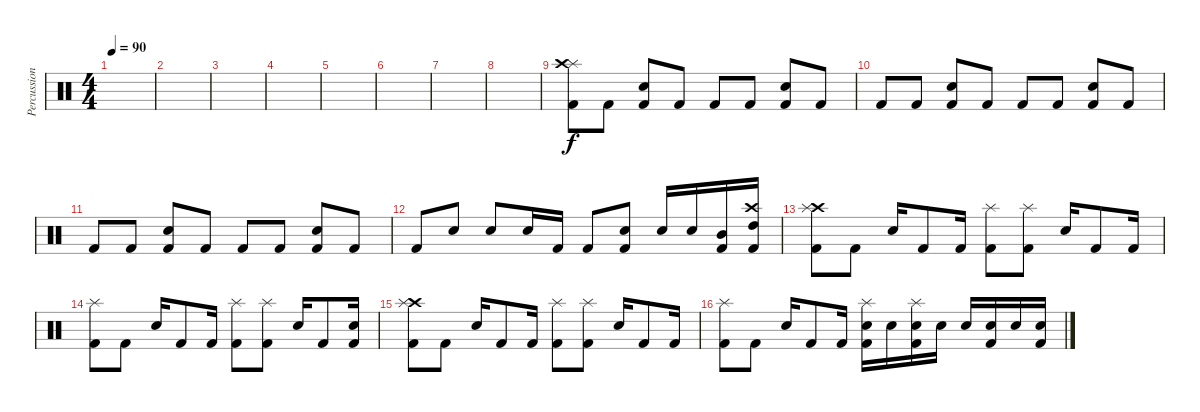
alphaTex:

\track ("Percussion" "Percussion") {instrument percussion}
\staff {score}
\articulation defaults
\ts (4 4)
\tempo 90
\clef neutral
\ks c
|
|
|
|
|
|
|
|
("Splash (hit)" "Kick (hit) 2" "Crash high (hit)").8 "Kick (hit) 2".8 ("Electric Snare (hit)" "Kick (hit) 2").8 "Kick (hit) 2".8 "Kick (hit) 2".8 "Kick (hit) 2".8 ("Electric Snare (hit)" "Kick (hit) 2").8 "Kick (hit) 2".8 |
"Kick (hit) 2".8 "Kick (hit) 2".8 ("Electric Snare (hit)" "Kick (hit) 2").8 "Kick (hit) 2".8 "Kick (hit) 2".8 "Kick (hit) 2".8 ("Electric Snare (hit)" "Kick (hit) 2").8 "Kick (hit) 2".8 |
"Kick (hit) 2".8 "Kick (hit) 2".8 ("Electric Snare (hit)" "Kick (hit) 2").8 "Kick (hit) 2".8 "Kick (hit) 2".8 "Kick (hit) 2".8 ("Electric Snare (hit)" "Kick (hit) 2").8 "Kick (hit) 2".8 |
"Kick (hit) 2".8 "Electric Snare (hit)".8 "Electric Snare (hit)".8 "Electric Snare (hit)".16 "Kick (hit) 2".16 "Kick (hit) 2".8 ("Electric Snare (hit)" "Kick (hit) 2").8 "Electric Snare (hit)".16 "Electric Snare (hit)".16 ("Mid Tom (hit)" "Kick (hit) 2").16 ("High Tom (hit)" "Kick (hit) 2" "Crash high (hit)").16 |
("Crash high (hit)" "Kick (hit) 2" "Splash (hit)").8 "Kick (hit) 2".8 "Electric Snare (hit)".16 "Kick (hit) 2".8 "Kick (hit) 2".16 ("Kick (hit) 2" "Splash (hit)").8 ("Kick (hit) 2" "Splash (hit)").8 "Electric Snare (hit)".16 "Kick (hit) 2".8 "Kick (hit) 2".16 |
("Kick (hit) 2" "Splash (hit)").8 "Kick (hit) 2".8 "Electric Snare (hit)".16 "Kick (hit) 2".8 "Kick (hit) 2".16 ("Kick (hit) 2" "Splash (hit)").8 ("Kick (hit) 2" "Splash (hit)").8 "Electric Snare (hit)".16 "Kick (hit) 2".8 ("Electric Snare (hit)" "Kick (hit) 2").16 |
("Crash high (hit)" "Kick (hit) 2" "Splash (hit)").8 "Kick (hit) 2".8 "Electric Snare (hit)".16 "Kick (hit) 2".8 "Kick (hit) 2".16 ("Kick (hit) 2" "Splash (hit)").8 ("Kick (hit) 2" "Splash (hit)").8 "Electric Snare (hit)".16 "Kick (hit) 2".8 "Kick (hit) 2".16 |
("Kick (hit) 2" "Splash (hit)").8 "Kick (hit) 2".8 "Electric Snare (hit)".16 "Kick (hit) 2".8 "Kick (hit) 2".16 ("Electric Snare (hit)" "Kick (hit) 2" "Splash (hit)").16 "Electric Snare (hit)".16 ("Electric Snare (hit)" "Kick (hit) 2" "Splash (hit)").16 "Electric Snare (hit)".16 "Electric Snare (hit)".16 ("Electric Snare (hit)" "Kick (hit) 2").16 "Electric Snare (hit)".16 ("Electric Snare (hit)" "Kick (hit) 2").16
